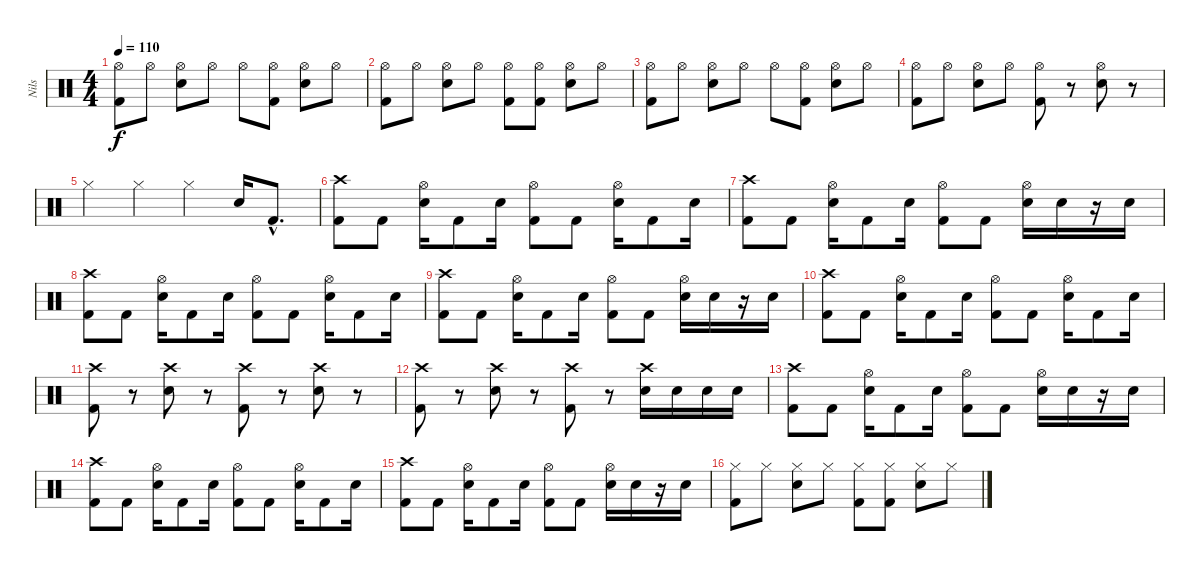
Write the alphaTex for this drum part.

\track ("Nils" "Nils") {instrument percussion}
\staff {score}
\articulation defaults
\ts (4 4)
\tempo 110
\clef neutral
\ks c
("Hi-Hat (open)" "Kick (hit) 2").8{dy f} "Hi-Hat (open)".8 ("Hi-Hat (open)" "Snare (hit) 2").8 "Hi-Hat (open)".8 "Hi-Hat (open)".8 ("Hi-Hat (open)" "Kick (hit) 2").8 ("Hi-Hat (open)" "Snare (hit) 2").8 "Hi-Hat (open)".8 |
("Hi-Hat (open)" "Kick (hit) 2").8 "Hi-Hat (open)".8 ("Hi-Hat (open)" "Snare (hit) 2").8 "Hi-Hat (open)".8 ("Hi-Hat (open)" "Kick (hit) 2").8 ("Hi-Hat (open)" "Kick (hit) 2").8 ("Hi-Hat (open)" "Snare (hit) 2").8 "Hi-Hat (open)".8 |
("Hi-Hat (open)" "Kick (hit) 2").8 "Hi-Hat (open)".8 ("Hi-Hat (open)" "Snare (hit) 2").8 "Hi-Hat (open)".8 "Hi-Hat (open)".8 ("Hi-Hat (open)" "Kick (hit) 2").8 ("Hi-Hat (open)" "Snare (hit) 2").8 "Hi-Hat (open)".8 |
("Hi-Hat (open)" "Kick (hit) 2").8 "Hi-Hat (open)".8 ("Hi-Hat (open)" "Snare (hit) 2").8 "Hi-Hat (open)".8 ("Hi-Hat (open)" "Kick (hit) 2").8 r.8 ("Hi-Hat (open)" "Snare (hit) 2").8 r.8 |
"Hi-Hat (closed)".4 "Hi-Hat (closed)".4 "Hi-Hat (closed)".4 "Snare (hit) 2".16 "Kick (hit) 2"{hac}.8{d} |
("Crash high (hit)" "Kick (hit) 2").8 "Kick (hit) 2".8 ("Hi-Hat (open)" "Snare (hit) 2").16 "Kick (hit) 2".8 "Snare (hit) 2".16 ("Hi-Hat (open)" "Kick (hit) 2").8 "Kick (hit) 2".8 ("Hi-Hat (open)" "Snare (hit) 2").16 "Kick (hit) 2".8 "Snare (hit) 2".16 |
("Crash high (hit)" "Kick (hit) 2").8 "Kick (hit) 2".8 ("Hi-Hat (open)" "Snare (hit) 2").16 "Kick (hit) 2".8 "Snare (hit) 2".16 ("Hi-Hat (open)" "Kick (hit) 2").8 "Kick (hit) 2".8 ("Hi-Hat (open)" "Snare (hit) 2").16 "Snare (hit) 2".16 r.16 "Snare (hit) 2".16 |
("Crash high (hit)" "Kick (hit) 2").8 "Kick (hit) 2".8 ("Hi-Hat (open)" "Snare (hit) 2").16 "Kick (hit) 2".8 "Snare (hit) 2".16 ("Hi-Hat (open)" "Kick (hit) 2").8 "Kick (hit) 2".8 ("Hi-Hat (open)" "Snare (hit) 2").16 "Kick (hit) 2".8 "Snare (hit) 2".16 |
("Crash high (hit)" "Kick (hit) 2").8 "Kick (hit) 2".8 ("Hi-Hat (open)" "Snare (hit) 2").16 "Kick (hit) 2".8 "Snare (hit) 2".16 ("Hi-Hat (open)" "Kick (hit) 2").8 "Kick (hit) 2".8 ("Hi-Hat (open)" "Snare (hit) 2").16 "Snare (hit) 2".16 r.16 "Snare (hit) 2".16 |
("Crash high (hit)" "Kick (hit) 2").8 "Kick (hit) 2".8 ("Hi-Hat (open)" "Snare (hit) 2").16 "Kick (hit) 2".8 "Snare (hit) 2".16 ("Hi-Hat (open)" "Kick (hit) 2").8 "Kick (hit) 2".8 ("Hi-Hat (open)" "Snare (hit) 2").16 "Kick (hit) 2".8 "Snare (hit) 2".16 |
("Crash high (hit)" "Kick (hit) 2").8 r.8 ("Crash high (hit)" "Snare (hit) 2").8 r.8 ("Crash high (hit)" "Kick (hit) 2").8 r.8 ("Crash high (hit)" "Snare (hit) 2").8 r.8 |
("Crash high (hit)" "Kick (hit) 2").8 r.8 ("Crash high (hit)" "Snare (hit) 2").8 r.8 ("Crash high (hit)" "Kick (hit) 2").8 r.8 ("Crash high (hit)" "Snare (hit) 2").16 "Snare (hit) 2".16 "Snare (hit) 2".16 "Snare (hit) 2".16 |
("Crash high (hit)" "Kick (hit) 2").8 "Kick (hit) 2".8 ("Hi-Hat (open)" "Snare (hit) 2").16 "Kick (hit) 2".8 "Snare (hit) 2".16 ("Hi-Hat (open)" "Kick (hit) 2").8 "Kick (hit) 2".8 ("Hi-Hat (open)" "Snare (hit) 2").16 "Snare (hit) 2".16 r.16 "Snare (hit) 2".16 |
("Crash high (hit)" "Kick (hit) 2").8 "Kick (hit) 2".8 ("Hi-Hat (open)" "Snare (hit) 2").16 "Kick (hit) 2".8 "Snare (hit) 2".16 ("Hi-Hat (open)" "Kick (hit) 2").8 "Kick (hit) 2".8 ("Hi-Hat (open)" "Snare (hit) 2").16 "Kick (hit) 2".8 "Snare (hit) 2".16 |
("Crash high (hit)" "Kick (hit) 2").8 "Kick (hit) 2".8 ("Hi-Hat (open)" "Snare (hit) 2").16 "Kick (hit) 2".8 "Snare (hit) 2".16 ("Hi-Hat (open)" "Kick (hit) 2").8 "Kick (hit) 2".8 ("Hi-Hat (open)" "Snare (hit) 2").16 "Snare (hit) 2".16 r.16 "Snare (hit) 2".16 |
("Hi-Hat (closed)" "Kick (hit) 2").8{volume 11} "Hi-Hat (closed)".8 ("Hi-Hat (closed)" "Snare (hit) 2").8 "Hi-Hat (closed)".8 ("Hi-Hat (closed)" "Kick (hit) 2").8 ("Hi-Hat (closed)" "Kick (hit) 2").8 ("Hi-Hat (closed)" "Snare (hit) 2").8 "Hi-Hat (closed)".8
